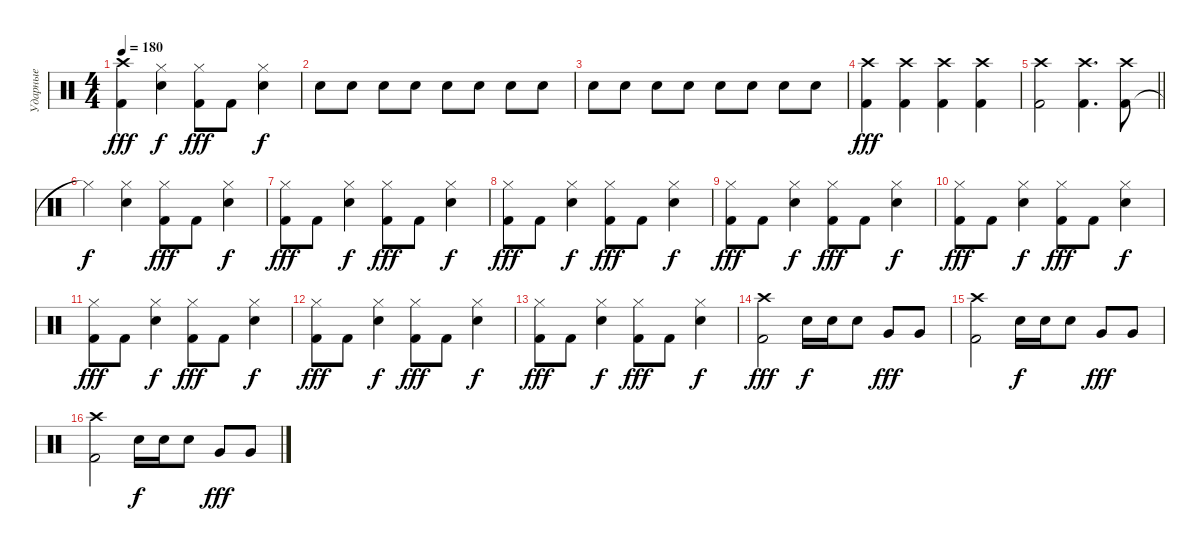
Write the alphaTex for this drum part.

\track ("Ударные" "Ударные") {instrument percussion}
\staff
\articulation defaults
\ts (4 4)
\tempo 180
\clef neutral
\ks c
("Kick (hit) 2" "Crash high (hit)").4{dy fff} ("Snare (hit) 2" "Hi-Hat (closed)").4{dy f} ("Kick (hit) 2" "Hi-Hat (closed)").8{dy fff} "Kick (hit) 2".8 ("Snare (hit) 2" "Hi-Hat (closed)").4{dy f} |
"Snare (hit) 2".8 "Snare (hit) 2".8 "Snare (hit) 2".8 "Snare (hit) 2".8 "Snare (hit) 2".8 "Snare (hit) 2".8 "Snare (hit) 2".8 "Snare (hit) 2".8 |
"Snare (hit) 2".8 "Snare (hit) 2".8 "Snare (hit) 2".8 "Snare (hit) 2".8 "Snare (hit) 2".8 "Snare (hit) 2".8 "Snare (hit) 2".8 "Snare (hit) 2".8 |
("Kick (hit) 2" "Crash high (hit)").4{dy fff} ("Kick (hit) 2" "Crash high (hit)").4 ("Kick (hit) 2" "Crash high (hit)").4 ("Kick (hit) 2" "Crash high (hit)").4 |
\barLineRight lightlight
("Kick (hit) 2" "Crash high (hit)").2 ("Kick (hit) 2" "Crash high (hit)").4{d} ("Kick (hit) 2" "Crash high (hit)").8 |
"Hi-Hat (closed)"{t}.4{dy f} ("Snare (hit) 2" "Hi-Hat (closed)").4 ("Kick (hit) 2" "Hi-Hat (closed)").8{dy fff} "Kick (hit) 2".8 ("Snare (hit) 2" "Hi-Hat (closed)").4{dy f} |
("Kick (hit) 2" "Hi-Hat (closed)").8{dy fff} "Kick (hit) 2".8 ("Snare (hit) 2" "Hi-Hat (closed)").4{dy f} ("Kick (hit) 2" "Hi-Hat (closed)").8{dy fff} "Kick (hit) 2".8 ("Snare (hit) 2" "Hi-Hat (closed)").4{dy f} |
("Kick (hit) 2" "Hi-Hat (closed)").8{dy fff} "Kick (hit) 2".8 ("Snare (hit) 2" "Hi-Hat (closed)").4{dy f} ("Kick (hit) 2" "Hi-Hat (closed)").8{dy fff} "Kick (hit) 2".8 ("Snare (hit) 2" "Hi-Hat (closed)").4{dy f} |
("Kick (hit) 2" "Hi-Hat (closed)").8{dy fff} "Kick (hit) 2".8 ("Snare (hit) 2" "Hi-Hat (closed)").4{dy f} ("Kick (hit) 2" "Hi-Hat (closed)").8{dy fff} "Kick (hit) 2".8 ("Snare (hit) 2" "Hi-Hat (closed)").4{dy f} |
("Kick (hit) 2" "Hi-Hat (closed)").8{dy fff} "Kick (hit) 2".8 ("Snare (hit) 2" "Hi-Hat (closed)").4{dy f} ("Kick (hit) 2" "Hi-Hat (closed)").8{dy fff} "Kick (hit) 2".8 ("Snare (hit) 2" "Hi-Hat (closed)").4{dy f} |
("Kick (hit) 2" "Hi-Hat (closed)").8{dy fff} "Kick (hit) 2".8 ("Snare (hit) 2" "Hi-Hat (closed)").4{dy f} ("Kick (hit) 2" "Hi-Hat (closed)").8{dy fff} "Kick (hit) 2".8 ("Snare (hit) 2" "Hi-Hat (closed)").4{dy f} |
("Kick (hit) 2" "Hi-Hat (closed)").8{dy fff} "Kick (hit) 2".8 ("Snare (hit) 2" "Hi-Hat (closed)").4{dy f} ("Kick (hit) 2" "Hi-Hat (closed)").8{dy fff} "Kick (hit) 2".8 ("Snare (hit) 2" "Hi-Hat (closed)").4{dy f} |
("Kick (hit) 2" "Hi-Hat (closed)").8{dy fff} "Kick (hit) 2".8 ("Snare (hit) 2" "Hi-Hat (closed)").4{dy f} ("Kick (hit) 2" "Hi-Hat (closed)").8{dy fff} "Kick (hit) 2".8 ("Snare (hit) 2" "Hi-Hat (closed)").4{dy f} |
("Kick (hit) 2" "Crash high (hit)").2{dy fff} "Snare (hit) 2".16{dy f} "Snare (hit) 2".16 "Snare (hit) 2".8 "Very Low Tom (hit)".8{dy fff} "Very Low Tom (hit)".8 |
("Kick (hit) 2" "Crash high (hit)").2 "Snare (hit) 2".16{dy f} "Snare (hit) 2".16 "Snare (hit) 2".8 "Very Low Tom (hit)".8{dy fff} "Very Low Tom (hit)".8 |
("Kick (hit) 2" "Crash high (hit)").2 "Snare (hit) 2".16{dy f} "Snare (hit) 2".16 "Snare (hit) 2".8 "Very Low Tom (hit)".8{dy fff} "Very Low Tom (hit)".8
